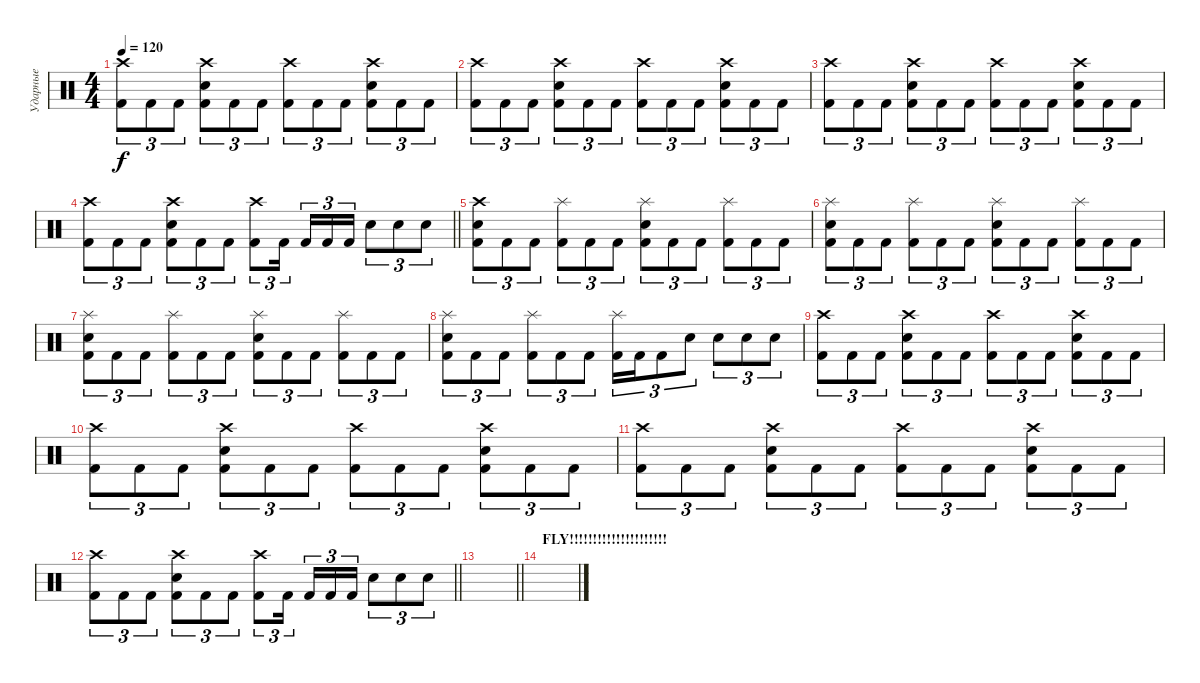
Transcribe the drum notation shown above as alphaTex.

\track ("Ударные" "Ударные") {instrument percussion}
\staff {score}
\articulation defaults
\ts (4 4)
\tempo 120
\clef neutral
\ks c
("Crash high (hit)" "Kick (hit) 2").8{tu (3 2) dy f} "Kick (hit) 2".8{tu (3 2)} "Kick (hit) 2".8{tu (3 2)} ("Crash high (hit)" "Electric Snare (hit)" "Kick (hit) 2").8{tu (3 2)} "Kick (hit) 2".8{tu (3 2)} "Kick (hit) 2".8{tu (3 2)} ("Crash high (hit)" "Kick (hit) 2").8{tu (3 2)} "Kick (hit) 2".8{tu (3 2)} "Kick (hit) 2".8{tu (3 2)} ("Crash high (hit)" "Electric Snare (hit)" "Kick (hit) 2").8{tu (3 2)} "Kick (hit) 2".8{tu (3 2)} "Kick (hit) 2".8{tu (3 2)} |
("Crash high (hit)" "Kick (hit) 2").8{tu (3 2)} "Kick (hit) 2".8{tu (3 2)} "Kick (hit) 2".8{tu (3 2)} ("Crash high (hit)" "Electric Snare (hit)" "Kick (hit) 2").8{tu (3 2)} "Kick (hit) 2".8{tu (3 2)} "Kick (hit) 2".8{tu (3 2)} ("Crash high (hit)" "Kick (hit) 2").8{tu (3 2)} "Kick (hit) 2".8{tu (3 2)} "Kick (hit) 2".8{tu (3 2)} ("Crash high (hit)" "Electric Snare (hit)" "Kick (hit) 2").8{tu (3 2)} "Kick (hit) 2".8{tu (3 2)} "Kick (hit) 2".8{tu (3 2)} |
("Crash high (hit)" "Kick (hit) 2").8{tu (3 2)} "Kick (hit) 2".8{tu (3 2)} "Kick (hit) 2".8{tu (3 2)} ("Crash high (hit)" "Electric Snare (hit)" "Kick (hit) 2").8{tu (3 2)} "Kick (hit) 2".8{tu (3 2)} "Kick (hit) 2".8{tu (3 2)} ("Crash high (hit)" "Kick (hit) 2").8{tu (3 2)} "Kick (hit) 2".8{tu (3 2)} "Kick (hit) 2".8{tu (3 2)} ("Crash high (hit)" "Electric Snare (hit)" "Kick (hit) 2").8{tu (3 2)} "Kick (hit) 2".8{tu (3 2)} "Kick (hit) 2".8{tu (3 2)} |
\barLineRight lightlight
("Crash high (hit)" "Kick (hit) 2").8{tu (3 2)} "Kick (hit) 2".8{tu (3 2)} "Kick (hit) 2".8{tu (3 2)} ("Crash high (hit)" "Electric Snare (hit)" "Kick (hit) 2").8{tu (3 2)} "Kick (hit) 2".8{tu (3 2)} "Kick (hit) 2".8{tu (3 2)} ("Crash high (hit)" "Kick (hit) 2").8{tu (3 2)} "Kick (hit) 2".16{tu (3 2)} "Kick (hit) 2".16{tu (3 2)} "Kick (hit) 2".16{tu (3 2)} "Kick (hit) 2".16{tu (3 2)} "Electric Snare (hit)".8{tu (3 2)} "Electric Snare (hit)".8{tu (3 2)} "Electric Snare (hit)".8{tu (3 2)} |
("Crash high (hit)" "Electric Snare (hit)" "Kick (hit) 2").8{tu (3 2)} "Kick (hit) 2".8{tu (3 2)} "Kick (hit) 2".8{tu (3 2)} ("Splash (hit)" "Kick (hit) 2").8{tu (3 2)} "Kick (hit) 2".8{tu (3 2)} "Kick (hit) 2".8{tu (3 2)} ("Splash (hit)" "Electric Snare (hit)" "Kick (hit) 2").8{tu (3 2)} "Kick (hit) 2".8{tu (3 2)} "Kick (hit) 2".8{tu (3 2)} ("Splash (hit)" "Kick (hit) 2").8{tu (3 2)} "Kick (hit) 2".8{tu (3 2)} "Kick (hit) 2".8{tu (3 2)} |
("Splash (hit)" "Electric Snare (hit)" "Kick (hit) 2").8{tu (3 2)} "Kick (hit) 2".8{tu (3 2)} "Kick (hit) 2".8{tu (3 2)} ("Splash (hit)" "Kick (hit) 2").8{tu (3 2)} "Kick (hit) 2".8{tu (3 2)} "Kick (hit) 2".8{tu (3 2)} ("Splash (hit)" "Electric Snare (hit)" "Kick (hit) 2").8{tu (3 2)} "Kick (hit) 2".8{tu (3 2)} "Kick (hit) 2".8{tu (3 2)} ("Splash (hit)" "Kick (hit) 2").8{tu (3 2)} "Kick (hit) 2".8{tu (3 2)} "Kick (hit) 2".8{tu (3 2)} |
("Splash (hit)" "Electric Snare (hit)" "Kick (hit) 2").8{tu (3 2)} "Kick (hit) 2".8{tu (3 2)} "Kick (hit) 2".8{tu (3 2)} ("Splash (hit)" "Kick (hit) 2").8{tu (3 2)} "Kick (hit) 2".8{tu (3 2)} "Kick (hit) 2".8{tu (3 2)} ("Splash (hit)" "Electric Snare (hit)" "Kick (hit) 2").8{tu (3 2)} "Kick (hit) 2".8{tu (3 2)} "Kick (hit) 2".8{tu (3 2)} ("Splash (hit)" "Kick (hit) 2").8{tu (3 2)} "Kick (hit) 2".8{tu (3 2)} "Kick (hit) 2".8{tu (3 2)} |
("Splash (hit)" "Electric Snare (hit)" "Kick (hit) 2").8{tu (3 2)} "Kick (hit) 2".8{tu (3 2)} "Kick (hit) 2".8{tu (3 2)} ("Splash (hit)" "Kick (hit) 2").8{tu (3 2)} "Kick (hit) 2".8{tu (3 2)} "Kick (hit) 2".8{tu (3 2)} ("Splash (hit)" "Kick (hit) 2").16{tu (3 2)} "Kick (hit) 2".16{tu (3 2)} "Kick (hit) 2".8{tu (3 2)} "Electric Snare (hit)".8{tu (3 2)} "Electric Snare (hit)".8{tu (3 2)} "Electric Snare (hit)".8{tu (3 2)} "Electric Snare (hit)".8{tu (3 2)} |
("Crash high (hit)" "Kick (hit) 2").8{tu (3 2)} "Kick (hit) 2".8{tu (3 2)} "Kick (hit) 2".8{tu (3 2)} ("Crash high (hit)" "Electric Snare (hit)" "Kick (hit) 2").8{tu (3 2)} "Kick (hit) 2".8{tu (3 2)} "Kick (hit) 2".8{tu (3 2)} ("Crash high (hit)" "Kick (hit) 2").8{tu (3 2)} "Kick (hit) 2".8{tu (3 2)} "Kick (hit) 2".8{tu (3 2)} ("Crash high (hit)" "Electric Snare (hit)" "Kick (hit) 2").8{tu (3 2)} "Kick (hit) 2".8{tu (3 2)} "Kick (hit) 2".8{tu (3 2)} |
("Crash high (hit)" "Kick (hit) 2").8{tu (3 2)} "Kick (hit) 2".8{tu (3 2)} "Kick (hit) 2".8{tu (3 2)} ("Crash high (hit)" "Electric Snare (hit)" "Kick (hit) 2").8{tu (3 2)} "Kick (hit) 2".8{tu (3 2)} "Kick (hit) 2".8{tu (3 2)} ("Crash high (hit)" "Kick (hit) 2").8{tu (3 2)} "Kick (hit) 2".8{tu (3 2)} "Kick (hit) 2".8{tu (3 2)} ("Crash high (hit)" "Electric Snare (hit)" "Kick (hit) 2").8{tu (3 2)} "Kick (hit) 2".8{tu (3 2)} "Kick (hit) 2".8{tu (3 2)} |
("Crash high (hit)" "Kick (hit) 2").8{tu (3 2)} "Kick (hit) 2".8{tu (3 2)} "Kick (hit) 2".8{tu (3 2)} ("Crash high (hit)" "Electric Snare (hit)" "Kick (hit) 2").8{tu (3 2)} "Kick (hit) 2".8{tu (3 2)} "Kick (hit) 2".8{tu (3 2)} ("Crash high (hit)" "Kick (hit) 2").8{tu (3 2)} "Kick (hit) 2".8{tu (3 2)} "Kick (hit) 2".8{tu (3 2)} ("Crash high (hit)" "Electric Snare (hit)" "Kick (hit) 2").8{tu (3 2)} "Kick (hit) 2".8{tu (3 2)} "Kick (hit) 2".8{tu (3 2)} |
\barLineRight lightlight
("Crash high (hit)" "Kick (hit) 2").8{tu (3 2)} "Kick (hit) 2".8{tu (3 2)} "Kick (hit) 2".8{tu (3 2)} ("Crash high (hit)" "Electric Snare (hit)" "Kick (hit) 2").8{tu (3 2)} "Kick (hit) 2".8{tu (3 2)} "Kick (hit) 2".8{tu (3 2)} ("Crash high (hit)" "Kick (hit) 2").8{tu (3 2)} "Kick (hit) 2".16{tu (3 2)} "Kick (hit) 2".16{tu (3 2)} "Kick (hit) 2".16{tu (3 2)} "Kick (hit) 2".16{tu (3 2)} "Electric Snare (hit)".8{tu (3 2)} "Electric Snare (hit)".8{tu (3 2)} "Electric Snare (hit)".8{tu (3 2)} |
\barLineRight lightlight
|
\section ("" "FLY!!!!!!!!!!!!!!!!!!!!!")
